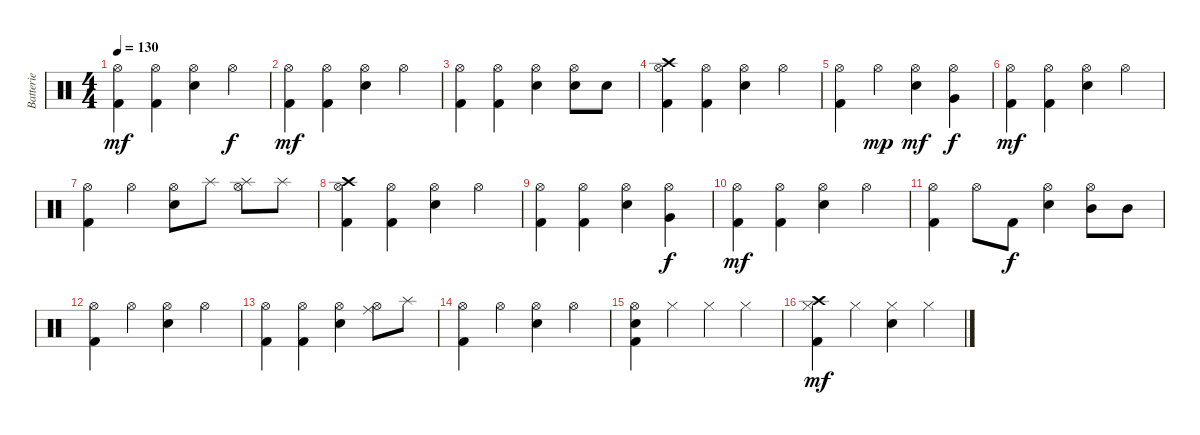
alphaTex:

\track ("Batterie" "Batterie") {instrument percussion}
\staff {score}
\articulation defaults
\ts (4 4)
\tempo 130
\clef neutral
\ks c
("Hi-Hat (open)" "Kick (hit) 2").4{dy mf} ("Hi-Hat (open)" "Kick (hit) 2").4 ("Hi-Hat (open)" "Electric Snare (hit)").4 "Hi-Hat (open)".4{dy f} |
("Hi-Hat (open)" "Kick (hit) 2").4{dy mf} ("Hi-Hat (open)" "Kick (hit) 2").4 ("Hi-Hat (open)" "Electric Snare (hit)").4 "Hi-Hat (open)".4 |
("Hi-Hat (open)" "Kick (hit) 2").4 ("Hi-Hat (open)" "Kick (hit) 2").4 ("Hi-Hat (open)" "Electric Snare (hit)").4 ("Hi-Hat (open)" "Electric Snare (hit)").8 "Electric Snare (hit)".8 |
("Crash high (hit)" "Hi-Hat (open)" "Kick (hit) 2").4 ("Hi-Hat (open)" "Kick (hit) 2").4 ("Hi-Hat (open)" "Electric Snare (hit)").4 "Hi-Hat (open)".4 |
("Hi-Hat (open)" "Kick (hit) 2").4 "Hi-Hat (open)".4{dy mp} ("Hi-Hat (open)" "Electric Snare (hit)").4{dy mf} ("Hi-Hat (open)" "Very Low Tom (hit)").4{dy f} |
("Hi-Hat (open)" "Kick (hit) 2").4{dy mf} ("Hi-Hat (open)" "Kick (hit) 2").4 ("Hi-Hat (open)" "Electric Snare (hit)").4 "Hi-Hat (open)".4 |
("Hi-Hat (open)" "Kick (hit) 2").4 "Hi-Hat (open)".4 ("Hi-Hat (open)" "Electric Snare (hit)").8 "Splash (hit)".8 ("Hi-Hat (open)" "Splash (hit)").8 "Splash (hit)".8 |
("Crash high (hit)" "Hi-Hat (open)" "Kick (hit) 2").4 ("Hi-Hat (open)" "Kick (hit) 2").4 ("Hi-Hat (open)" "Electric Snare (hit)").4 "Hi-Hat (open)".4 |
("Hi-Hat (open)" "Kick (hit) 2").4 ("Hi-Hat (open)" "Kick (hit) 2").4 ("Hi-Hat (open)" "Electric Snare (hit)").4 ("Hi-Hat (open)" "Very Low Tom (hit)").4{dy f} |
("Hi-Hat (open)" "Kick (hit) 2").4{dy mf} ("Hi-Hat (open)" "Kick (hit) 2").4 ("Hi-Hat (open)" "Electric Snare (hit)").4 "Hi-Hat (open)".4 |
("Hi-Hat (open)" "Kick (hit) 2").4 "Hi-Hat (open)".8 "Kick (hit) 2".8{dy f} ("Hi-Hat (open)" "Electric Snare (hit)").4 ("Hi-Hat (open)" "Mid Tom (hit)").8 "Mid Tom (hit)".8 |
("Hi-Hat (open)" "Kick (hit) 2").4 "Hi-Hat (open)".4 ("Hi-Hat (open)" "Electric Snare (hit)").4 "Hi-Hat (open)".4 |
("Hi-Hat (open)" "Kick (hit) 2").4 ("Hi-Hat (open)" "Kick (hit) 2").4 ("Hi-Hat (open)" "Electric Snare (hit)").4 ("Hi-Hat (open)" "Ride (middle)").8 "Splash (hit)".8 |
("Hi-Hat (open)" "Kick (hit) 2").4 "Hi-Hat (open)".4 ("Hi-Hat (open)" "Electric Snare (hit)").4 "Hi-Hat (open)".4 |
("Hi-Hat (open)" "Electric Snare (hit)" "Kick (hit) 2").4 "Hi-Hat (closed)".4 "Hi-Hat (closed)".4 "Hi-Hat (closed)".4 |
("Crash high (hit)" "Hi-Hat (closed)" "Kick (hit) 2").4{dy mf} "Hi-Hat (closed)".4 ("Hi-Hat (closed)" "Electric Snare (hit)").4 "Hi-Hat (closed)".4
